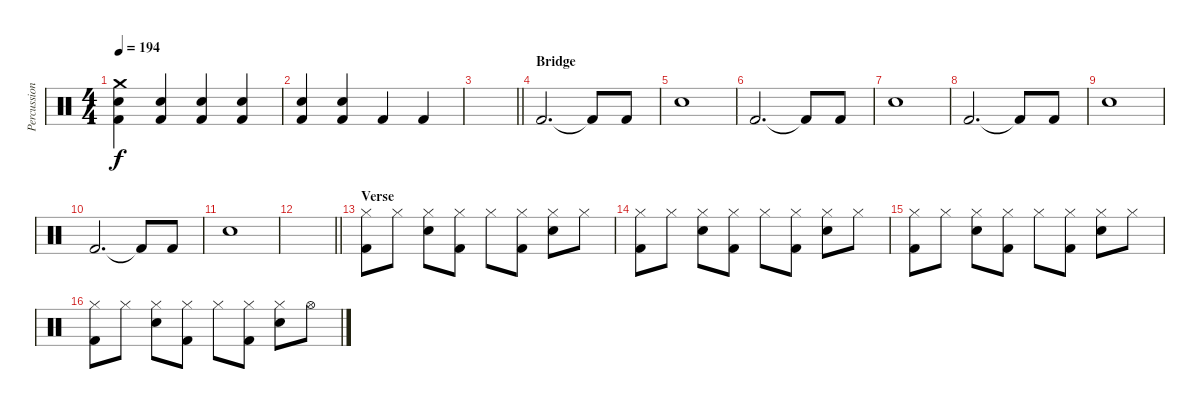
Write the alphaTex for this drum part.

\track ("Percussion" "Percussion") {instrument percussion}
\staff {score}
\articulation defaults
\ts (4 4)
\tempo 194
\clef neutral
\ks c
("Crash medium (hit)" "Snare (hit) 2" "Kick (hit) 2").4{dy f} ("Snare (hit) 2" "Kick (hit) 2").4 ("Snare (hit) 2" "Kick (hit) 2").4 ("Snare (hit) 2" "Kick (hit) 2").4 |
("Snare (hit) 2" "Kick (hit) 2").4 ("Snare (hit) 2" "Kick (hit) 2").4 "Kick (hit) 2".4 "Kick (hit) 2".4 |
\barLineRight lightlight
|
\section ("" "Bridge")
"Kick (hit) 2".2{d} "Kick (hit) 2"{t}.8 "Kick (hit) 2".8 |
"Snare (hit) 2".1 |
"Kick (hit) 2".2{d} "Kick (hit) 2"{t}.8 "Kick (hit) 2".8 |
"Snare (hit) 2".1 |
"Kick (hit) 2".2{d} "Kick (hit) 2"{t}.8 "Kick (hit) 2".8 |
"Snare (hit) 2".1 |
"Kick (hit) 2".2{d} "Kick (hit) 2"{t}.8 "Kick (hit) 2".8 |
"Snare (hit) 2".1 |
\barLineRight lightlight
|
\section ("" "Verse")
("Hi-Hat (closed)" "Kick (hit) 2").8 "Hi-Hat (closed)".8 ("Hi-Hat (closed)" "Snare (hit) 2").8 ("Hi-Hat (closed)" "Kick (hit) 2").8 "Hi-Hat (closed)".8 ("Hi-Hat (closed)" "Kick (hit) 2").8 ("Hi-Hat (closed)" "Snare (hit) 2").8 "Hi-Hat (closed)".8 |
("Hi-Hat (closed)" "Kick (hit) 2").8 "Hi-Hat (closed)".8 ("Hi-Hat (closed)" "Snare (hit) 2").8 ("Hi-Hat (closed)" "Kick (hit) 2").8 "Hi-Hat (closed)".8 ("Hi-Hat (closed)" "Kick (hit) 2").8 ("Hi-Hat (closed)" "Snare (hit) 2").8 "Hi-Hat (closed)".8 |
("Hi-Hat (closed)" "Kick (hit) 2").8 "Hi-Hat (closed)".8 ("Hi-Hat (closed)" "Snare (hit) 2").8 ("Hi-Hat (closed)" "Kick (hit) 2").8 "Hi-Hat (closed)".8 ("Hi-Hat (closed)" "Kick (hit) 2").8 ("Hi-Hat (closed)" "Snare (hit) 2").8 "Hi-Hat (closed)".8 |
("Hi-Hat (closed)" "Kick (hit) 2").8 "Hi-Hat (closed)".8 ("Hi-Hat (closed)" "Snare (hit) 2").8 ("Hi-Hat (closed)" "Kick (hit) 2").8 "Hi-Hat (closed)".8 ("Hi-Hat (closed)" "Kick (hit) 2").8 ("Hi-Hat (closed)" "Snare (hit) 2").8 "Hi-Hat (open)".8
